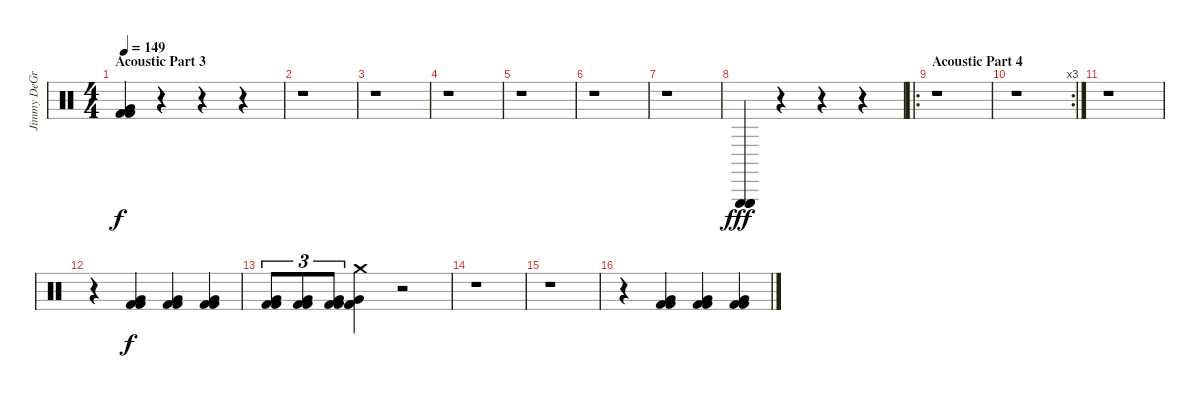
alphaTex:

\track ("Jimmy DeGrasso" "Jimmy DeGr") {instrument percussion}
\staff {score}
\articulation defaults
\ts (4 4)
\section ("" "Acoustic Part 3")
\tempo 149
\clef neutral
\ks c
("Very Low Tom (hit)" "Kick (hit) 2" "Kick (hit) 2").4{dy f} r.4 r.4 r.4 |
r.1 |
r.1 |
r.1 |
r.1 |
r.1 |
r.1 |
("Triangle (hit)" "Triangle (hit)" "Triangle (hit)").4{dy fff} r.4 r.4 r.4 |
\ro
\section ("" "Acoustic Part 4")
r.1 |
\rc 3
r.1 |
r.1 |
r.4 ("Very Low Tom (hit)" "Kick (hit) 2" "Kick (hit) 2").4{dy f} ("Very Low Tom (hit)" "Kick (hit) 2" "Kick (hit) 2").4 ("Very Low Tom (hit)" "Kick (hit) 2" "Kick (hit) 2").4 |
("Very Low Tom (hit)" "Kick (hit) 2" "Kick (hit) 2").8{tu (3 2)} ("Very Low Tom (hit)" "Kick (hit) 2" "Kick (hit) 2").8{tu (3 2)} ("Very Low Tom (hit)" "Kick (hit) 2" "Kick (hit) 2").8{tu (3 2)} ("Crash medium (hit)" "Very Low Tom (hit)" "Kick (hit) 2" "Kick (hit) 2").4 r.2 |
r.1 |
r.1 |
r.4 ("Very Low Tom (hit)" "Kick (hit) 2" "Kick (hit) 2").4 ("Very Low Tom (hit)" "Kick (hit) 2" "Kick (hit) 2").4 ("Very Low Tom (hit)" "Kick (hit) 2" "Kick (hit) 2").4
